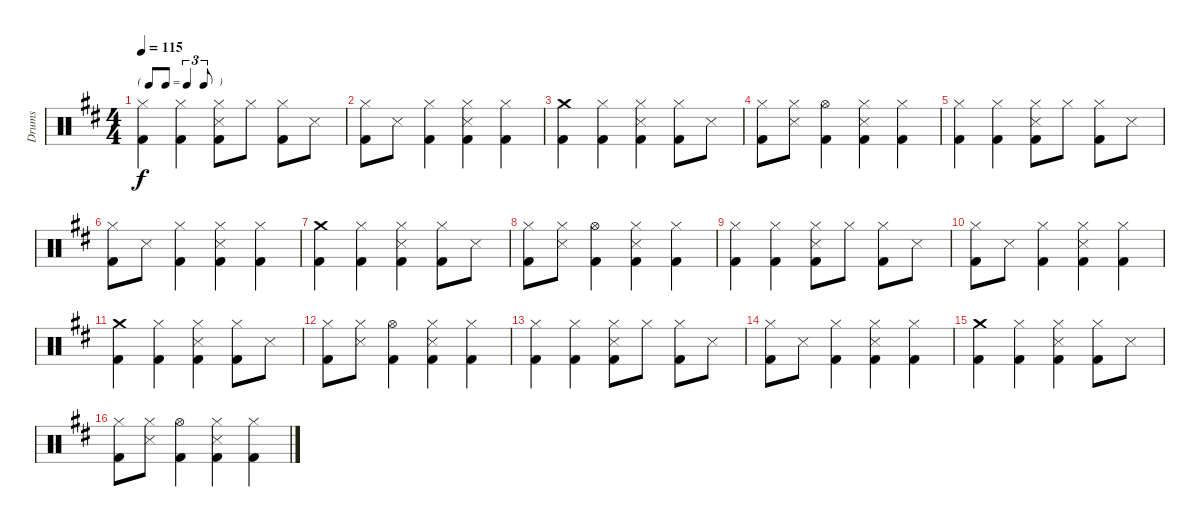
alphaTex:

\track ("Drums" "Drums") {instrument percussion}
\staff {score}
\articulation defaults
\ts (4 4)
\tf triplet8th
\tempo 115
\clef neutral
\ks d
("Hi-Hat (closed)" "Kick (hit) 2").4{dy f} ("Hi-Hat (closed)" "Kick (hit) 2").4 ("Hi-Hat (closed)" "Snare (side stick) 3" "Kick (hit) 2").8 "Hi-Hat (closed)".8 ("Hi-Hat (closed)" "Kick (hit) 2").8 "Snare (side stick) 3".8 |
("Hi-Hat (closed)" "Kick (hit) 2").8 "Snare (side stick) 3".8 ("Hi-Hat (closed)" "Kick (hit) 2").4 ("Hi-Hat (closed)" "Snare (side stick) 3" "Kick (hit) 2").4 ("Hi-Hat (closed)" "Kick (hit) 2").4 |
("Crash medium (hit)" "Kick (hit) 2").4 ("Hi-Hat (closed)" "Kick (hit) 2").4 ("Hi-Hat (closed)" "Snare (side stick) 3" "Kick (hit) 2").4 ("Hi-Hat (closed)" "Kick (hit) 2").8 "Snare (side stick) 3".8 |
("Hi-Hat (closed)" "Kick (hit) 2").8 ("Hi-Hat (closed)" "Snare (side stick) 3").8 ("Hi-Hat (open)" "Kick (hit) 2").4 ("Hi-Hat (closed)" "Snare (side stick) 3" "Kick (hit) 2").4 ("Hi-Hat (closed)" "Kick (hit) 2").4 |
("Hi-Hat (closed)" "Kick (hit) 2").4 ("Hi-Hat (closed)" "Kick (hit) 2").4 ("Hi-Hat (closed)" "Snare (side stick) 3" "Kick (hit) 2").8 "Hi-Hat (closed)".8 ("Hi-Hat (closed)" "Kick (hit) 2").8 "Snare (side stick) 3".8 |
("Hi-Hat (closed)" "Kick (hit) 2").8 "Snare (side stick) 3".8 ("Hi-Hat (closed)" "Kick (hit) 2").4 ("Hi-Hat (closed)" "Snare (side stick) 3" "Kick (hit) 2").4 ("Hi-Hat (closed)" "Kick (hit) 2").4 |
("Crash medium (hit)" "Kick (hit) 2").4 ("Hi-Hat (closed)" "Kick (hit) 2").4 ("Hi-Hat (closed)" "Snare (side stick) 3" "Kick (hit) 2").4 ("Hi-Hat (closed)" "Kick (hit) 2").8 "Snare (side stick) 3".8 |
("Hi-Hat (closed)" "Kick (hit) 2").8 ("Hi-Hat (closed)" "Snare (side stick) 3").8 ("Hi-Hat (open)" "Kick (hit) 2").4 ("Hi-Hat (closed)" "Snare (side stick) 3" "Kick (hit) 2").4 ("Hi-Hat (closed)" "Kick (hit) 2").4 |
("Hi-Hat (closed)" "Kick (hit) 2").4 ("Hi-Hat (closed)" "Kick (hit) 2").4 ("Hi-Hat (closed)" "Snare (side stick) 3" "Kick (hit) 2").8 "Hi-Hat (closed)".8 ("Hi-Hat (closed)" "Kick (hit) 2").8 "Snare (side stick) 3".8 |
("Hi-Hat (closed)" "Kick (hit) 2").8 "Snare (side stick) 3".8 ("Hi-Hat (closed)" "Kick (hit) 2").4 ("Hi-Hat (closed)" "Snare (side stick) 3" "Kick (hit) 2").4 ("Hi-Hat (closed)" "Kick (hit) 2").4 |
("Crash medium (hit)" "Kick (hit) 2").4 ("Hi-Hat (closed)" "Kick (hit) 2").4 ("Hi-Hat (closed)" "Snare (side stick) 3" "Kick (hit) 2").4 ("Hi-Hat (closed)" "Kick (hit) 2").8 "Snare (side stick) 3".8 |
("Hi-Hat (closed)" "Kick (hit) 2").8 ("Hi-Hat (closed)" "Snare (side stick) 3").8 ("Hi-Hat (open)" "Kick (hit) 2").4 ("Hi-Hat (closed)" "Snare (side stick) 3" "Kick (hit) 2").4 ("Hi-Hat (closed)" "Kick (hit) 2").4 |
("Hi-Hat (closed)" "Kick (hit) 2").4 ("Hi-Hat (closed)" "Kick (hit) 2").4 ("Hi-Hat (closed)" "Snare (side stick) 3" "Kick (hit) 2").8 "Hi-Hat (closed)".8 ("Hi-Hat (closed)" "Kick (hit) 2").8 "Snare (side stick) 3".8 |
("Hi-Hat (closed)" "Kick (hit) 2").8 "Snare (side stick) 3".8 ("Hi-Hat (closed)" "Kick (hit) 2").4 ("Hi-Hat (closed)" "Snare (side stick) 3" "Kick (hit) 2").4 ("Hi-Hat (closed)" "Kick (hit) 2").4 |
("Crash medium (hit)" "Kick (hit) 2").4 ("Hi-Hat (closed)" "Kick (hit) 2").4 ("Hi-Hat (closed)" "Snare (side stick) 3" "Kick (hit) 2").4 ("Hi-Hat (closed)" "Kick (hit) 2").8 "Snare (side stick) 3".8 |
("Hi-Hat (closed)" "Kick (hit) 2").8 ("Hi-Hat (closed)" "Snare (side stick) 3").8 ("Hi-Hat (open)" "Kick (hit) 2").4 ("Hi-Hat (closed)" "Snare (side stick) 3" "Kick (hit) 2").4 ("Hi-Hat (closed)" "Kick (hit) 2").4
